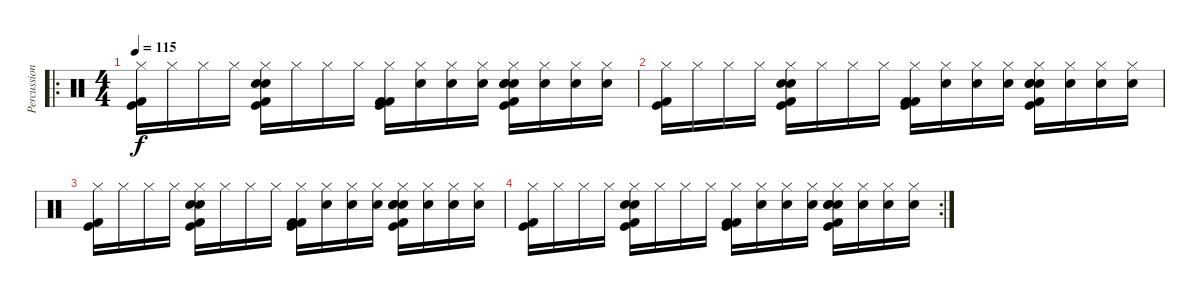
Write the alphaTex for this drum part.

\track ("Percussion" "Percussion") {instrument percussion}
\staff {score}
\articulation defaults
\ro
\ts (4 4)
\tempo 115
\clef neutral
\ks c
("Hi-Hat (closed)" "Kick (hit) 2" "Kick (hit)").16{dy f} "Hi-Hat (closed)".16 "Hi-Hat (closed)".16 "Hi-Hat (closed)".16 ("Hi-Hat (closed)" "Snare (hit) 2" "Electric Snare (hit)" "Kick (hit) 2" "Kick (hit)").16 "Hi-Hat (closed)".16 "Hi-Hat (closed)".16 "Hi-Hat (closed)".16 ("Hi-Hat (closed)" "Kick (hit) 2" "Kick (hit) 2" "Kick (hit)").16 ("Hi-Hat (closed)" "Hand Clap (hit)").16 ("Hi-Hat (closed)" "Hand Clap (hit)").16 ("Hi-Hat (closed)" "Hand Clap (hit)").16 ("Hi-Hat (closed)" "Snare (hit) 2" "Electric Snare (hit)" "Kick (hit) 2" "Hand Clap (hit)" "Kick (hit)").16 ("Hi-Hat (closed)" "Hand Clap (hit)").16 ("Hi-Hat (closed)" "Hand Clap (hit)").16 ("Hi-Hat (closed)" "Hand Clap (hit)").16 |
("Hi-Hat (closed)" "Kick (hit) 2" "Kick (hit)").16 "Hi-Hat (closed)".16 "Hi-Hat (closed)".16 "Hi-Hat (closed)".16 ("Hi-Hat (closed)" "Snare (hit) 2" "Electric Snare (hit)" "Kick (hit) 2" "Kick (hit)").16 "Hi-Hat (closed)".16 "Hi-Hat (closed)".16 "Hi-Hat (closed)".16 ("Hi-Hat (closed)" "Kick (hit) 2" "Kick (hit) 2" "Kick (hit)").16 ("Hi-Hat (closed)" "Hand Clap (hit)").16 ("Hi-Hat (closed)" "Hand Clap (hit)").16 ("Hi-Hat (closed)" "Hand Clap (hit)").16 ("Hi-Hat (closed)" "Snare (hit) 2" "Electric Snare (hit)" "Kick (hit) 2" "Hand Clap (hit)" "Kick (hit)").16 ("Hi-Hat (closed)" "Hand Clap (hit)").16 ("Hi-Hat (closed)" "Hand Clap (hit)").16 ("Hi-Hat (closed)" "Hand Clap (hit)").16 |
("Hi-Hat (closed)" "Kick (hit) 2" "Kick (hit)").16 "Hi-Hat (closed)".16 "Hi-Hat (closed)".16 "Hi-Hat (closed)".16 ("Hi-Hat (closed)" "Snare (hit) 2" "Electric Snare (hit)" "Kick (hit) 2" "Kick (hit)").16 "Hi-Hat (closed)".16 "Hi-Hat (closed)".16 "Hi-Hat (closed)".16 ("Hi-Hat (closed)" "Kick (hit) 2" "Kick (hit) 2" "Kick (hit)").16 ("Hi-Hat (closed)" "Hand Clap (hit)").16 ("Hi-Hat (closed)" "Hand Clap (hit)").16 ("Hi-Hat (closed)" "Hand Clap (hit)").16 ("Hi-Hat (closed)" "Snare (hit) 2" "Electric Snare (hit)" "Kick (hit) 2" "Hand Clap (hit)" "Kick (hit)").16 ("Hi-Hat (closed)" "Hand Clap (hit)").16 ("Hi-Hat (closed)" "Hand Clap (hit)").16 ("Hi-Hat (closed)" "Hand Clap (hit)").16 |
\rc 2
("Hi-Hat (closed)" "Kick (hit) 2" "Kick (hit)").16 "Hi-Hat (closed)".16 "Hi-Hat (closed)".16 "Hi-Hat (closed)".16 ("Hi-Hat (closed)" "Snare (hit) 2" "Electric Snare (hit)" "Kick (hit) 2" "Kick (hit)").16 "Hi-Hat (closed)".16 "Hi-Hat (closed)".16 "Hi-Hat (closed)".16 ("Hi-Hat (closed)" "Kick (hit) 2" "Kick (hit) 2" "Kick (hit)").16 ("Hi-Hat (closed)" "Hand Clap (hit)").16 ("Hi-Hat (closed)" "Hand Clap (hit)").16 ("Hi-Hat (closed)" "Hand Clap (hit)").16 ("Hi-Hat (closed)" "Snare (hit) 2" "Electric Snare (hit)" "Kick (hit) 2" "Hand Clap (hit)" "Kick (hit)").16 ("Hi-Hat (closed)" "Hand Clap (hit)").16 ("Hi-Hat (closed)" "Hand Clap (hit)").16 ("Hi-Hat (closed)" "Hand Clap (hit)").16
